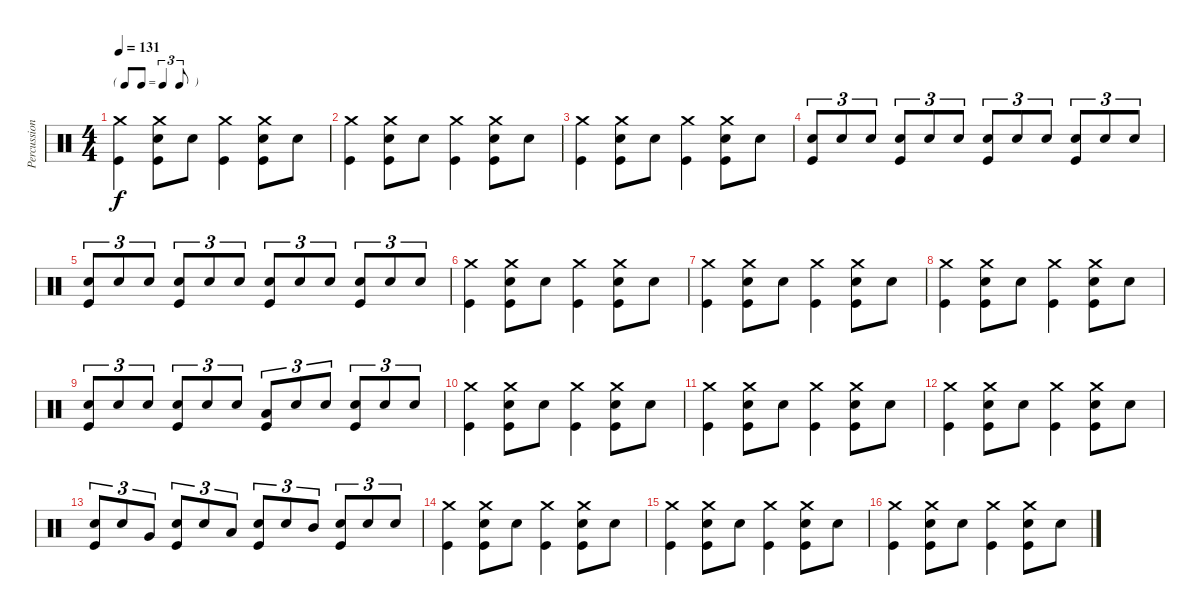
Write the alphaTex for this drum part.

\track ("Percussion" "Percussion") {instrument percussion}
\staff {score}
\articulation defaults
\ts (4 4)
\tf triplet8th
\tempo 131
\clef neutral
\ks c
("Crash medium (hit)" "Kick (hit)").4{dy f} ("Crash medium (hit)" "Snare (hit) 2" "Kick (hit)").8 "Snare (hit) 2".8 ("Crash medium (hit)" "Kick (hit)").4 ("Crash medium (hit)" "Snare (hit) 2" "Kick (hit)").8 "Snare (hit) 2".8 |
("Crash medium (hit)" "Kick (hit)").4 ("Crash medium (hit)" "Snare (hit) 2" "Kick (hit)").8 "Snare (hit) 2".8 ("Crash medium (hit)" "Kick (hit)").4 ("Crash medium (hit)" "Snare (hit) 2" "Kick (hit)").8 "Snare (hit) 2".8 |
("Crash medium (hit)" "Kick (hit)").4 ("Crash medium (hit)" "Snare (hit) 2" "Kick (hit)").8 "Snare (hit) 2".8 ("Crash medium (hit)" "Kick (hit)").4 ("Crash medium (hit)" "Snare (hit) 2" "Kick (hit)").8 "Snare (hit) 2".8 |
("Snare (hit) 2" "Kick (hit)").8{tu (3 2)} "Snare (hit) 2".8{tu (3 2)} "Snare (hit) 2".8{tu (3 2)} ("Snare (hit) 2" "Kick (hit)").8{tu (3 2)} "Snare (hit) 2".8{tu (3 2)} "Snare (hit) 2".8{tu (3 2)} ("Snare (hit) 2" "Kick (hit)").8{tu (3 2)} "Snare (hit) 2".8{tu (3 2)} "Snare (hit) 2".8{tu (3 2)} ("Snare (hit) 2" "Kick (hit)").8{tu (3 2)} "Snare (hit) 2".8{tu (3 2)} "Snare (hit) 2".8{tu (3 2)} |
("Snare (hit) 2" "Kick (hit)").8{tu (3 2)} "Snare (hit) 2".8{tu (3 2)} "Snare (hit) 2".8{tu (3 2)} ("Snare (hit) 2" "Kick (hit)").8{tu (3 2)} "Snare (hit) 2".8{tu (3 2)} "Snare (hit) 2".8{tu (3 2)} ("Snare (hit) 2" "Kick (hit)").8{tu (3 2)} "Snare (hit) 2".8{tu (3 2)} "Snare (hit) 2".8{tu (3 2)} ("Snare (hit) 2" "Kick (hit)").8{tu (3 2)} "Snare (hit) 2".8{tu (3 2)} "Snare (hit) 2".8{tu (3 2)} |
("Crash medium (hit)" "Kick (hit)").4 ("Crash medium (hit)" "Snare (hit) 2" "Kick (hit)").8 "Snare (hit) 2".8 ("Crash medium (hit)" "Kick (hit)").4 ("Crash medium (hit)" "Snare (hit) 2" "Kick (hit)").8 "Snare (hit) 2".8 |
("Crash medium (hit)" "Kick (hit)").4 ("Crash medium (hit)" "Snare (hit) 2" "Kick (hit)").8 "Snare (hit) 2".8 ("Crash medium (hit)" "Kick (hit)").4 ("Crash medium (hit)" "Snare (hit) 2" "Kick (hit)").8 "Snare (hit) 2".8 |
("Crash medium (hit)" "Kick (hit)").4 ("Crash medium (hit)" "Snare (hit) 2" "Kick (hit)").8 "Snare (hit) 2".8 ("Crash medium (hit)" "Kick (hit)").4 ("Crash medium (hit)" "Snare (hit) 2" "Kick (hit)").8 "Snare (hit) 2".8 |
("Snare (hit) 2" "Kick (hit)").8{tu (3 2)} "Snare (hit) 2".8{tu (3 2)} "Snare (hit) 2".8{tu (3 2)} ("Snare (hit) 2" "Kick (hit)").8{tu (3 2)} "Snare (hit) 2".8{tu (3 2)} "Snare (hit) 2".8{tu (3 2)} ("Low Tom (hit)" "Kick (hit)").8{tu (3 2)} "Snare (hit) 2".8{tu (3 2)} "Snare (hit) 2".8{tu (3 2)} ("Snare (hit) 2" "Kick (hit)").8{tu (3 2)} "Snare (hit) 2".8{tu (3 2)} "Snare (hit) 2".8{tu (3 2)} |
("Crash medium (hit)" "Kick (hit)").4 ("Crash medium (hit)" "Snare (hit) 2" "Kick (hit)").8 "Snare (hit) 2".8 ("Crash medium (hit)" "Kick (hit)").4 ("Crash medium (hit)" "Snare (hit) 2" "Kick (hit)").8 "Snare (hit) 2".8 |
("Crash medium (hit)" "Kick (hit)").4 ("Crash medium (hit)" "Snare (hit) 2" "Kick (hit)").8 "Snare (hit) 2".8 ("Crash medium (hit)" "Kick (hit)").4 ("Crash medium (hit)" "Snare (hit) 2" "Kick (hit)").8 "Snare (hit) 2".8 |
("Crash medium (hit)" "Kick (hit)").4 ("Crash medium (hit)" "Snare (hit) 2" "Kick (hit)").8 "Snare (hit) 2".8 ("Crash medium (hit)" "Kick (hit)").4 ("Crash medium (hit)" "Snare (hit) 2" "Kick (hit)").8 "Snare (hit) 2".8 |
("Snare (hit) 2" "Kick (hit)").8{tu (3 2)} "Snare (hit) 2".8{tu (3 2)} "Very Low Tom (hit)".8{tu (3 2)} ("Snare (hit) 2" "Kick (hit)").8{tu (3 2)} "Snare (hit) 2".8{tu (3 2)} "Low Tom (hit)".8{tu (3 2)} ("Snare (hit) 2" "Kick (hit)").8{tu (3 2)} "Snare (hit) 2".8{tu (3 2)} "Mid Tom (hit)".8{tu (3 2)} ("Snare (hit) 2" "Kick (hit)").8{tu (3 2)} "Snare (hit) 2".8{tu (3 2)} "Snare (hit) 2".8{tu (3 2)} |
("Crash medium (hit)" "Kick (hit)").4 ("Crash medium (hit)" "Snare (hit) 2" "Kick (hit)").8 "Snare (hit) 2".8 ("Crash medium (hit)" "Kick (hit)").4 ("Crash medium (hit)" "Snare (hit) 2" "Kick (hit)").8 "Snare (hit) 2".8 |
("Crash medium (hit)" "Kick (hit)").4 ("Crash medium (hit)" "Snare (hit) 2" "Kick (hit)").8 "Snare (hit) 2".8 ("Crash medium (hit)" "Kick (hit)").4 ("Crash medium (hit)" "Snare (hit) 2" "Kick (hit)").8 "Snare (hit) 2".8 |
("Crash medium (hit)" "Kick (hit)").4 ("Crash medium (hit)" "Snare (hit) 2" "Kick (hit)").8 "Snare (hit) 2".8 ("Crash medium (hit)" "Kick (hit)").4 ("Crash medium (hit)" "Snare (hit) 2" "Kick (hit)").8 "Snare (hit) 2".8
